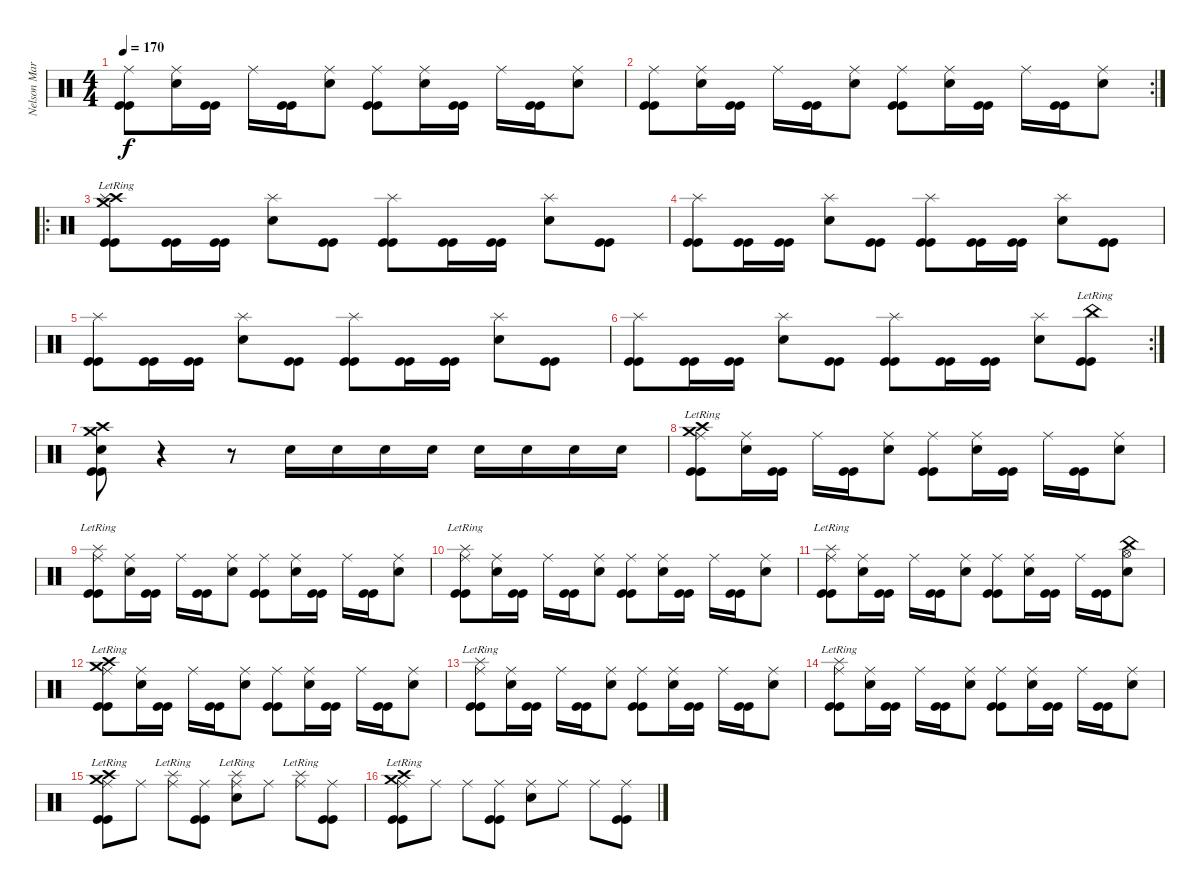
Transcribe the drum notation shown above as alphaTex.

\track ("Nelson Maria" "Nelson Mar") {instrument percussion}
\staff {score}
\articulation defaults
\ts (4 4)
\tempo 170
\clef neutral
\ks c
("Ride (middle)" "Kick (hit)" "Kick (hit)").8{dy f} ("Snare (hit) 2" "Ride (middle)").16 ("Kick (hit)" "Kick (hit)").16 "Ride (middle)".16 ("Kick (hit)" "Kick (hit)").16 ("Snare (hit) 2" "Ride (middle)").8 ("Ride (middle)" "Kick (hit)" "Kick (hit)").8 ("Snare (hit) 2" "Ride (middle)").16 ("Kick (hit)" "Kick (hit)").16 "Ride (middle)".16 ("Kick (hit)" "Kick (hit)").16 ("Snare (hit) 2" "Ride (middle)").8 |
\rc 2
("Ride (middle)" "Kick (hit)" "Kick (hit)").8 ("Snare (hit) 2" "Ride (middle)").16 ("Kick (hit)" "Kick (hit)").16 "Ride (middle)".16 ("Kick (hit)" "Kick (hit)").16 ("Snare (hit) 2" "Ride (middle)").8 ("Ride (middle)" "Kick (hit)" "Kick (hit)").8 ("Snare (hit) 2" "Ride (middle)").16 ("Kick (hit)" "Kick (hit)").16 "Ride (middle)".16 ("Kick (hit)" "Kick (hit)").16 ("Snare (hit) 2" "Ride (middle)").8 |
\ro
("Crash high (hit)"{lr} "Crash medium (hit)"{lr} "Splash (hit)" "Kick (hit)" "Kick (hit)").8 ("Kick (hit)" "Kick (hit)").16 ("Kick (hit)" "Kick (hit)").16 ("Snare (hit) 2" "Splash (hit)").8 ("Kick (hit)" "Kick (hit)").8 ("Splash (hit)" "Kick (hit)" "Kick (hit)").8 ("Kick (hit)" "Kick (hit)").16 ("Kick (hit)" "Kick (hit)").16 ("Snare (hit) 2" "Splash (hit)").8 ("Kick (hit)" "Kick (hit)").8 |
("Splash (hit)" "Kick (hit)" "Kick (hit)").8 ("Kick (hit)" "Kick (hit)").16 ("Kick (hit)" "Kick (hit)").16 ("Snare (hit) 2" "Splash (hit)").8 ("Kick (hit)" "Kick (hit)").8 ("Splash (hit)" "Kick (hit)" "Kick (hit)").8 ("Kick (hit)" "Kick (hit)").16 ("Kick (hit)" "Kick (hit)").16 ("Snare (hit) 2" "Splash (hit)").8 ("Kick (hit)" "Kick (hit)").8 |
("Splash (hit)" "Kick (hit)" "Kick (hit)").8 ("Kick (hit)" "Kick (hit)").16 ("Kick (hit)" "Kick (hit)").16 ("Snare (hit) 2" "Splash (hit)").8 ("Kick (hit)" "Kick (hit)").8 ("Splash (hit)" "Kick (hit)" "Kick (hit)").8 ("Kick (hit)" "Kick (hit)").16 ("Kick (hit)" "Kick (hit)").16 ("Snare (hit) 2" "Splash (hit)").8 ("Kick (hit)" "Kick (hit)").8 |
\rc 2
("Splash (hit)" "Kick (hit)" "Kick (hit)").8 ("Kick (hit)" "Kick (hit)").16 ("Kick (hit)" "Kick (hit)").16 ("Snare (hit) 2" "Splash (hit)").8 ("Kick (hit)" "Kick (hit)").8 ("Splash (hit)" "Kick (hit)" "Kick (hit)").8 ("Kick (hit)" "Kick (hit)").16 ("Kick (hit)" "Kick (hit)").16 ("Snare (hit) 2" "Splash (hit)").8 ("China (hit)"{lr} "Kick (hit)" "Kick (hit)").8 |
("Crash high (hit)" "Crash medium (hit)" "Snare (hit) 2" "Kick (hit)" "Kick (hit)").8 r.4{volume 0} r.8 "Snare (hit) 2".16{volume 16} "Snare (hit) 2".16 "Snare (hit) 2".16 "Snare (hit) 2".16 "Snare (hit) 2".16 "Snare (hit) 2".16 "Snare (hit) 2".16 "Snare (hit) 2".16 |
("Crash high (hit)"{lr} "Crash medium (hit)"{lr} "Ride (middle)" "Kick (hit)" "Kick (hit)").8 ("Snare (hit) 2" "Ride (middle)").16 ("Kick (hit)" "Kick (hit)").16 "Ride (middle)".16 ("Kick (hit)" "Kick (hit)").16 ("Snare (hit) 2" "Ride (middle)").8 ("Ride (middle)" "Kick (hit)" "Kick (hit)").8 ("Snare (hit) 2" "Ride (middle)").16 ("Kick (hit)" "Kick (hit)").16 "Ride (middle)".16 ("Kick (hit)" "Kick (hit)").16 ("Snare (hit) 2" "Ride (middle)").8 |
("Splash (hit)"{lr} "Ride (middle)" "Kick (hit)" "Kick (hit)").8 ("Snare (hit) 2" "Ride (middle)").16 ("Kick (hit)" "Kick (hit)").16 "Ride (middle)".16 ("Kick (hit)" "Kick (hit)").16 ("Snare (hit) 2" "Ride (middle)").8 ("Ride (middle)" "Kick (hit)" "Kick (hit)").8 ("Snare (hit) 2" "Ride (middle)").16 ("Kick (hit)" "Kick (hit)").16 "Ride (middle)".16 ("Kick (hit)" "Kick (hit)").16 ("Snare (hit) 2" "Ride (middle)").8 |
("Splash (hit)"{lr} "Ride (middle)" "Kick (hit)" "Kick (hit)").8 ("Snare (hit) 2" "Ride (middle)").16 ("Kick (hit)" "Kick (hit)").16 "Ride (middle)".16 ("Kick (hit)" "Kick (hit)").16 ("Snare (hit) 2" "Ride (middle)").8 ("Ride (middle)" "Kick (hit)" "Kick (hit)").8 ("Snare (hit) 2" "Ride (middle)").16 ("Kick (hit)" "Kick (hit)").16 "Ride (middle)".16 ("Kick (hit)" "Kick (hit)").16 ("Snare (hit) 2" "Ride (middle)").8 |
("Splash (hit)"{lr} "Ride (middle)" "Kick (hit)" "Kick (hit)").8 ("Snare (hit) 2" "Ride (middle)").16 ("Kick (hit)" "Kick (hit)").16 "Ride (middle)".16 ("Kick (hit)" "Kick (hit)").16 ("Snare (hit) 2" "Ride (middle)").8 ("Ride (middle)" "Kick (hit)" "Kick (hit)").8 ("Snare (hit) 2" "Ride (middle)").16 ("Kick (hit)" "Kick (hit)").16 "Ride (middle)".16 ("Kick (hit)" "Kick (hit)").16 ("China (hit)" "Hi-Hat (open)" "Snare (hit) 2").8 |
("Crash high (hit)"{lr} "Crash medium (hit)"{lr} "Ride (middle)" "Kick (hit)" "Kick (hit)").8 ("Snare (hit) 2" "Ride (middle)").16 ("Kick (hit)" "Kick (hit)").16 "Ride (middle)".16 ("Kick (hit)" "Kick (hit)").16 ("Snare (hit) 2" "Ride (middle)").8 ("Ride (middle)" "Kick (hit)" "Kick (hit)").8 ("Snare (hit) 2" "Ride (middle)").16 ("Kick (hit)" "Kick (hit)").16 "Ride (middle)".16 ("Kick (hit)" "Kick (hit)").16 ("Snare (hit) 2" "Ride (middle)").8 |
("Splash (hit)"{lr} "Ride (middle)" "Kick (hit)" "Kick (hit)").8 ("Snare (hit) 2" "Ride (middle)").16 ("Kick (hit)" "Kick (hit)").16 "Ride (middle)".16 ("Kick (hit)" "Kick (hit)").16 ("Snare (hit) 2" "Ride (middle)").8 ("Ride (middle)" "Kick (hit)" "Kick (hit)").8 ("Snare (hit) 2" "Ride (middle)").16 ("Kick (hit)" "Kick (hit)").16 "Ride (middle)".16 ("Kick (hit)" "Kick (hit)").16 ("Snare (hit) 2" "Ride (middle)").8 |
("Splash (hit)"{lr} "Ride (middle)" "Kick (hit)" "Kick (hit)").8 ("Snare (hit) 2" "Ride (middle)").16 ("Kick (hit)" "Kick (hit)").16 "Ride (middle)".16 ("Kick (hit)" "Kick (hit)").16 ("Snare (hit) 2" "Ride (middle)").8 ("Ride (middle)" "Kick (hit)" "Kick (hit)").8 ("Snare (hit) 2" "Ride (middle)").16 ("Kick (hit)" "Kick (hit)").16 "Ride (middle)".16 ("Kick (hit)" "Kick (hit)").16 ("Snare (hit) 2" "Ride (middle)").8 |
("Crash high (hit)"{lr} "Crash medium (hit)"{lr} "Ride (middle)" "Kick (hit)" "Kick (hit)").8 "Ride (middle)".8 ("Splash (hit)"{lr} "Ride (middle)").8 ("Ride (middle)" "Kick (hit)" "Kick (hit)").8 ("Splash (hit)"{lr} "Snare (hit) 2" "Ride (middle)").8 "Ride (middle)".8 ("Splash (hit)"{lr} "Ride (middle)").8 ("Ride (middle)" "Kick (hit)" "Kick (hit)").8 |
("Crash high (hit)"{lr} "Crash medium (hit)"{lr} "Ride (middle)" "Kick (hit)" "Kick (hit)").8 "Ride (middle)".8 "Ride (middle)".8 ("Ride (middle)" "Kick (hit)" "Kick (hit)").8 ("Snare (hit) 2" "Ride (middle)").8 "Ride (middle)".8 "Ride (middle)".8 ("Ride (middle)" "Kick (hit)" "Kick (hit)").8
